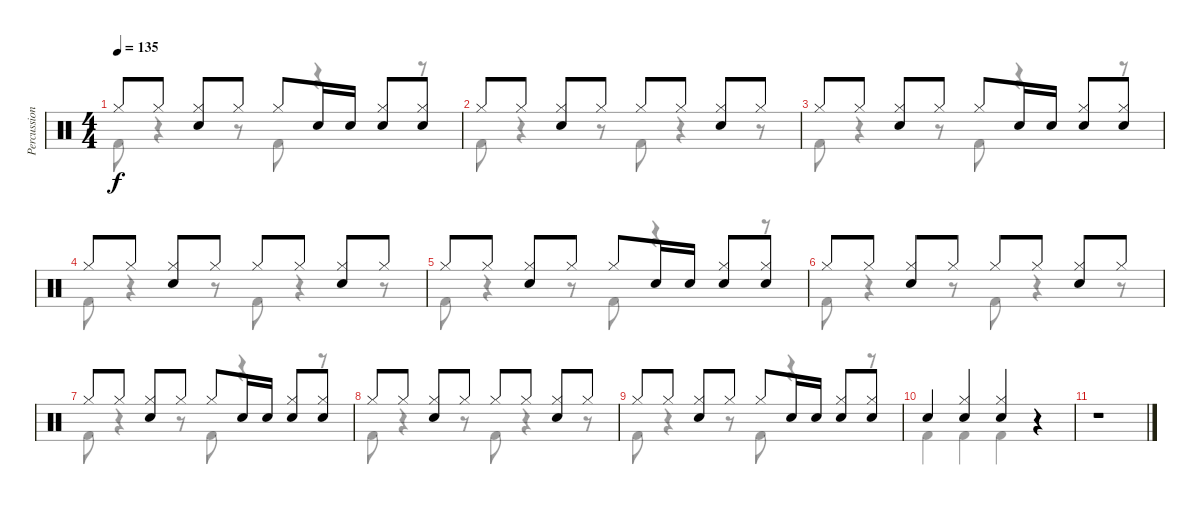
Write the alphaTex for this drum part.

\track ("Percussion" "Percussion") {instrument percussion}
\staff {score}
\articulation defaults
\voice
\ts (4 4)
\tempo 135
\clef neutral
\ks c "Hi-Hat (closed)".8{dy f} "Hi-Hat (closed)".8
("Hi-Hat (closed)" "Snare (hit) 2").8 "Hi-Hat (closed)".8 "Hi-Hat (closed)".8 "Snare (hit) 2".16 "Snare (hit) 2".16 ("Hi-Hat (closed)" "Snare (hit) 2").8 ("Hi-Hat (closed)" "Snare (hit) 2").8 |
"Hi-Hat (closed)".8 "Hi-Hat (closed)".8 ("Hi-Hat (closed)" "Snare (hit) 2").8 "Hi-Hat (closed)".8 "Hi-Hat (closed)".8 "Hi-Hat (closed)".8 ("Hi-Hat (closed)" "Snare (hit) 2").8 "Hi-Hat (closed)".8 |
"Hi-Hat (closed)".8 "Hi-Hat (closed)".8 ("Hi-Hat (closed)" "Snare (hit) 2").8 "Hi-Hat (closed)".8 "Hi-Hat (closed)".8 "Snare (hit) 2".16 "Snare (hit) 2".16 ("Hi-Hat (closed)" "Snare (hit) 2").8 ("Hi-Hat (closed)" "Snare (hit) 2").8 |
"Hi-Hat (closed)".8 "Hi-Hat (closed)".8 ("Hi-Hat (closed)" "Snare (hit) 2").8 "Hi-Hat (closed)".8 "Hi-Hat (closed)".8 "Hi-Hat (closed)".8 ("Hi-Hat (closed)" "Snare (hit) 2").8 "Hi-Hat (closed)".8 |
"Hi-Hat (closed)".8 "Hi-Hat (closed)".8 ("Hi-Hat (closed)" "Snare (hit) 2").8 "Hi-Hat (closed)".8 "Hi-Hat (closed)".8 "Snare (hit) 2".16 "Snare (hit) 2".16 ("Hi-Hat (closed)" "Snare (hit) 2").8 ("Hi-Hat (closed)" "Snare (hit) 2").8 |
"Hi-Hat (closed)".8 "Hi-Hat (closed)".8 ("Hi-Hat (closed)" "Snare (hit) 2").8 "Hi-Hat (closed)".8 "Hi-Hat (closed)".8 "Hi-Hat (closed)".8 ("Hi-Hat (closed)" "Snare (hit) 2").8 "Hi-Hat (closed)".8 |
"Hi-Hat (closed)".8 "Hi-Hat (closed)".8 ("Hi-Hat (closed)" "Snare (hit) 2").8 "Hi-Hat (closed)".8 "Hi-Hat (closed)".8 "Snare (hit) 2".16 "Snare (hit) 2".16 ("Hi-Hat (closed)" "Snare (hit) 2").8 ("Hi-Hat (closed)" "Snare (hit) 2").8 |
"Hi-Hat (closed)".8 "Hi-Hat (closed)".8 ("Hi-Hat (closed)" "Snare (hit) 2").8 "Hi-Hat (closed)".8 "Hi-Hat (closed)".8 "Hi-Hat (closed)".8 ("Hi-Hat (closed)" "Snare (hit) 2").8 "Hi-Hat (closed)".8 |
"Hi-Hat (closed)".8 "Hi-Hat (closed)".8 ("Hi-Hat (closed)" "Snare (hit) 2").8 "Hi-Hat (closed)".8 "Hi-Hat (closed)".8 "Snare (hit) 2".16 "Snare (hit) 2".16 ("Hi-Hat (closed)" "Snare (hit) 2").8 ("Hi-Hat (closed)" "Snare (hit) 2").8 |
"Snare (hit) 2".4 ("Hi-Hat (closed)" "Snare (hit) 2").4 ("Hi-Hat (closed)" "Snare (hit) 2").4 r.4 |
r.1
\voice
\clef neutral
\ottava regular
\simile none
\ks c "Kick (hit) 2".8{dy f}
r.4 r.8 "Kick (hit) 2".8 r.4 r.8 |
"Kick (hit) 2".8 r.4 r.8 "Kick (hit) 2".8 r.4 r.8 |
"Kick (hit) 2".8 r.4 r.8 "Kick (hit) 2".8 r.4 r.8 |
"Kick (hit) 2".8 r.4 r.8 "Kick (hit) 2".8 r.4 r.8 |
"Kick (hit) 2".8 r.4 r.8 "Kick (hit) 2".8 r.4 r.8 |
"Kick (hit) 2".8 r.4 r.8 "Kick (hit) 2".8 r.4 r.8 |
"Kick (hit) 2".8 r.4 r.8 "Kick (hit) 2".8 r.4 r.8 |
"Kick (hit) 2".8 r.4 r.8 "Kick (hit) 2".8 r.4 r.8 |
"Kick (hit) 2".8 r.4 r.8 "Kick (hit) 2".8 r.4 r.8 |
"Kick (hit) 2".4 "Kick (hit) 2".4 "Kick (hit) 2".4 r.4 |
r.1
